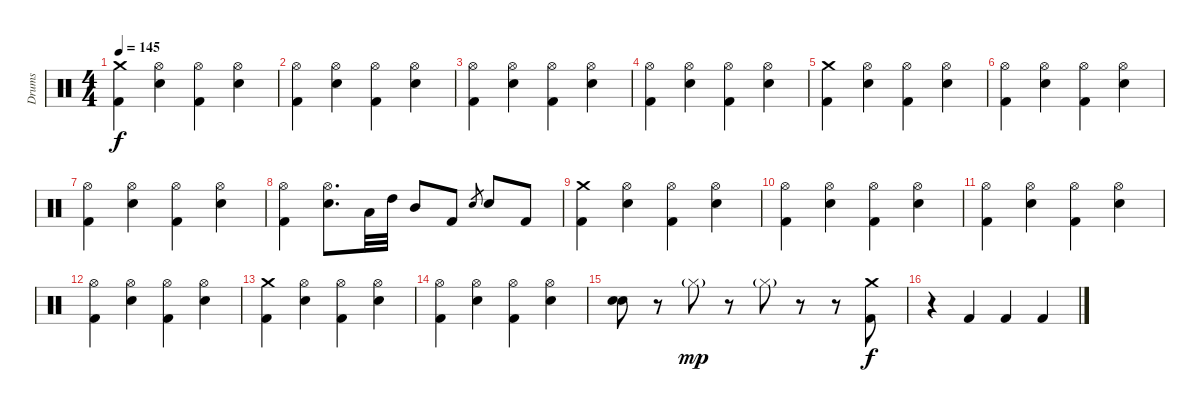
\track ("Drums" "Drums") {instrument percussion}
\staff {score}
\articulation defaults
\ts (4 4)
\tempo 145
\clef neutral
\ks c
("Crash medium (hit)" "Kick (hit) 2").4{dy f} ("Hi-Hat (open)" "Snare (hit) 2").4 ("Hi-Hat (open)" "Kick (hit) 2").4 ("Hi-Hat (open)" "Snare (hit) 2").4 |
("Hi-Hat (open)" "Kick (hit) 2").4 ("Hi-Hat (open)" "Snare (hit) 2").4 ("Hi-Hat (open)" "Kick (hit) 2").4 ("Hi-Hat (open)" "Snare (hit) 2").4 |
("Hi-Hat (open)" "Kick (hit) 2").4 ("Hi-Hat (open)" "Snare (hit) 2").4 ("Hi-Hat (open)" "Kick (hit) 2").4 ("Hi-Hat (open)" "Snare (hit) 2").4 |
("Hi-Hat (open)" "Kick (hit) 2").4 ("Hi-Hat (open)" "Snare (hit) 2").4 ("Hi-Hat (open)" "Kick (hit) 2").4 ("Hi-Hat (open)" "Snare (hit) 2").4 |
("Crash medium (hit)" "Kick (hit) 2").4 ("Hi-Hat (open)" "Snare (hit) 2").4 ("Hi-Hat (open)" "Kick (hit) 2").4 ("Hi-Hat (open)" "Snare (hit) 2").4 |
("Hi-Hat (open)" "Kick (hit) 2").4 ("Hi-Hat (open)" "Snare (hit) 2").4 ("Hi-Hat (open)" "Kick (hit) 2").4 ("Hi-Hat (open)" "Snare (hit) 2").4 |
("Hi-Hat (open)" "Kick (hit) 2").4 ("Hi-Hat (open)" "Snare (hit) 2").4 ("Hi-Hat (open)" "Kick (hit) 2").4 ("Hi-Hat (open)" "Snare (hit) 2").4 |
("Hi-Hat (open)" "Kick (hit) 2").4 ("Hi-Hat (open)" "Snare (hit) 2").8{d} "Low Tom (hit)".32 "High Tom (hit)".32 "Mid Tom (hit)".8 "Kick (hit) 2".8 "Electric Snare (hit)".8{gr} "Snare (hit) 2".8 "Kick (hit) 2".8 |
("Crash medium (hit)" "Kick (hit) 2").4 ("Hi-Hat (open)" "Snare (hit) 2").4 ("Hi-Hat (open)" "Kick (hit) 2").4 ("Hi-Hat (open)" "Snare (hit) 2").4 |
("Hi-Hat (open)" "Kick (hit) 2").4 ("Hi-Hat (open)" "Snare (hit) 2").4 ("Hi-Hat (open)" "Kick (hit) 2").4 ("Hi-Hat (open)" "Snare (hit) 2").4 |
("Hi-Hat (open)" "Kick (hit) 2").4 ("Hi-Hat (open)" "Snare (hit) 2").4 ("Hi-Hat (open)" "Kick (hit) 2").4 ("Hi-Hat (open)" "Snare (hit) 2").4 |
("Hi-Hat (open)" "Kick (hit) 2").4 ("Hi-Hat (open)" "Snare (hit) 2").4 ("Hi-Hat (open)" "Kick (hit) 2").4 ("Hi-Hat (open)" "Snare (hit) 2").4 |
("Crash medium (hit)" "Kick (hit) 2").4 ("Hi-Hat (open)" "Snare (hit) 2").4 ("Hi-Hat (open)" "Kick (hit) 2").4 ("Hi-Hat (open)" "Snare (hit) 2").4 |
("Hi-Hat (open)" "Kick (hit) 2").4 ("Hi-Hat (open)" "Snare (hit) 2").4 ("Hi-Hat (open)" "Kick (hit) 2").4 ("Hi-Hat (open)" "Snare (hit) 2").4 |
("Snare (hit) 2" "Electric Snare (hit)").8 r.8 "Hi-Hat (closed)"{g}.8{dy mp} r.8 "Hi-Hat (closed)"{g}.8 r.8 r.8 ("Crash medium (hit)" "Kick (hit) 2").8{dy f} |
r.4 "Kick (hit) 2".4 "Kick (hit) 2".4 "Kick (hit) 2".4
